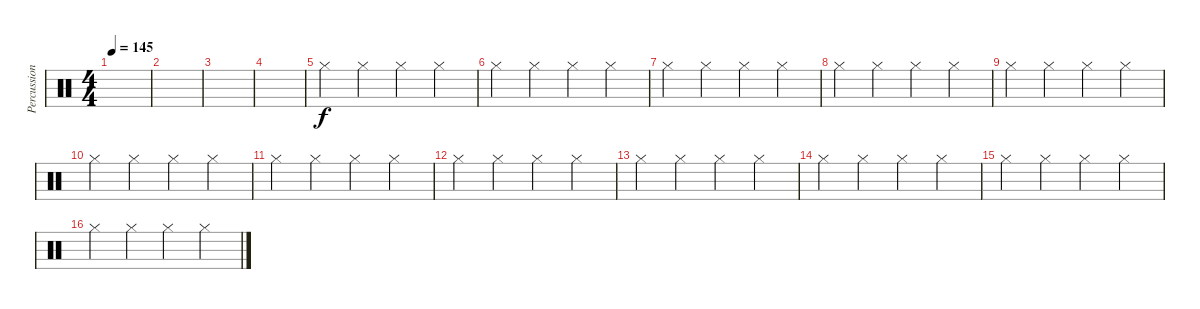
\track ("Percussions" "Percussion") {instrument percussion}
\staff {score}
\articulation defaults
\ts (4 4)
\tempo 145
\clef neutral
\ks c
|
|
|
|
"Hi-Hat (closed)".4 "Hi-Hat (closed)".4 "Hi-Hat (closed)".4 "Hi-Hat (closed)".4 |
"Hi-Hat (closed)".4 "Hi-Hat (closed)".4 "Hi-Hat (closed)".4 "Hi-Hat (closed)".4 |
"Hi-Hat (closed)".4 "Hi-Hat (closed)".4 "Hi-Hat (closed)".4 "Hi-Hat (closed)".4 |
"Hi-Hat (closed)".4 "Hi-Hat (closed)".4 "Hi-Hat (closed)".4 "Hi-Hat (closed)".4 |
"Hi-Hat (closed)".4 "Hi-Hat (closed)".4 "Hi-Hat (closed)".4 "Hi-Hat (closed)".4 |
"Hi-Hat (closed)".4 "Hi-Hat (closed)".4 "Hi-Hat (closed)".4 "Hi-Hat (closed)".4 |
"Hi-Hat (closed)".4 "Hi-Hat (closed)".4 "Hi-Hat (closed)".4 "Hi-Hat (closed)".4 |
"Hi-Hat (closed)".4 "Hi-Hat (closed)".4 "Hi-Hat (closed)".4 "Hi-Hat (closed)".4 |
"Hi-Hat (closed)".4 "Hi-Hat (closed)".4 "Hi-Hat (closed)".4 "Hi-Hat (closed)".4 |
"Hi-Hat (closed)".4 "Hi-Hat (closed)".4 "Hi-Hat (closed)".4 "Hi-Hat (closed)".4 |
"Hi-Hat (closed)".4 "Hi-Hat (closed)".4 "Hi-Hat (closed)".4 "Hi-Hat (closed)".4 |
"Hi-Hat (closed)".4 "Hi-Hat (closed)".4 "Hi-Hat (closed)".4 "Hi-Hat (closed)".4
